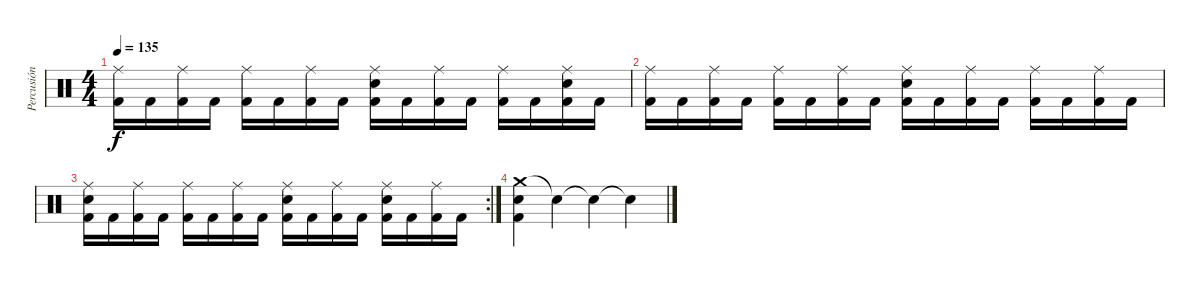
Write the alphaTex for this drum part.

\track ("Percusión" "Percusión") {instrument percussion}
\staff {score}
\articulation defaults
\ts (4 4)
\tempo 135
\clef neutral
\ks c
("Kick (hit) 2" "Ride (middle)").16{dy f} "Kick (hit) 2".16 ("Kick (hit) 2" "Ride (middle)").16 "Kick (hit) 2".16 ("Kick (hit) 2" "Ride (middle)").16 "Kick (hit) 2".16 ("Kick (hit) 2" "Ride (middle)").16 "Kick (hit) 2".16 ("Snare (hit) 2" "Kick (hit) 2" "Ride (middle)").16 "Kick (hit) 2".16 ("Kick (hit) 2" "Ride (middle)").16 "Kick (hit) 2".16 ("Kick (hit) 2" "Ride (middle)").16 "Kick (hit) 2".16 ("Snare (hit) 2" "Kick (hit) 2" "Ride (middle)").16 "Kick (hit) 2".16 |
("Kick (hit) 2" "Ride (middle)").16 "Kick (hit) 2".16 ("Kick (hit) 2" "Ride (middle)").16 "Kick (hit) 2".16 ("Kick (hit) 2" "Ride (middle)").16 "Kick (hit) 2".16 ("Kick (hit) 2" "Ride (middle)").16 "Kick (hit) 2".16 ("Snare (hit) 2" "Kick (hit) 2" "Ride (middle)").16 "Kick (hit) 2".16 ("Kick (hit) 2" "Ride (middle)").16 "Kick (hit) 2".16 ("Kick (hit) 2" "Ride (middle)").16 "Kick (hit) 2".16 ("Kick (hit) 2" "Ride (middle)").16 "Kick (hit) 2".16 |
\rc 2
("Snare (hit) 2" "Kick (hit) 2" "Ride (middle)").16 "Kick (hit) 2".16 ("Kick (hit) 2" "Ride (middle)").16 "Kick (hit) 2".16 ("Kick (hit) 2" "Ride (middle)").16 "Kick (hit) 2".16 ("Kick (hit) 2" "Ride (middle)").16 "Kick (hit) 2".16 ("Snare (hit) 2" "Kick (hit) 2" "Ride (middle)").16 "Kick (hit) 2".16 ("Kick (hit) 2" "Ride (middle)").16 "Kick (hit) 2".16 ("Snare (hit) 2" "Kick (hit) 2" "Ride (middle)").16 "Kick (hit) 2".16 ("Kick (hit) 2" "Ride (middle)").16 "Kick (hit) 2".16 |
("Crash medium (hit)" "Snare (hit) 2" "Kick (hit) 2").4 "Snare (hit)"{t}.4 "Snare (hit)"{t}.4 "Snare (hit)"{t}.4
